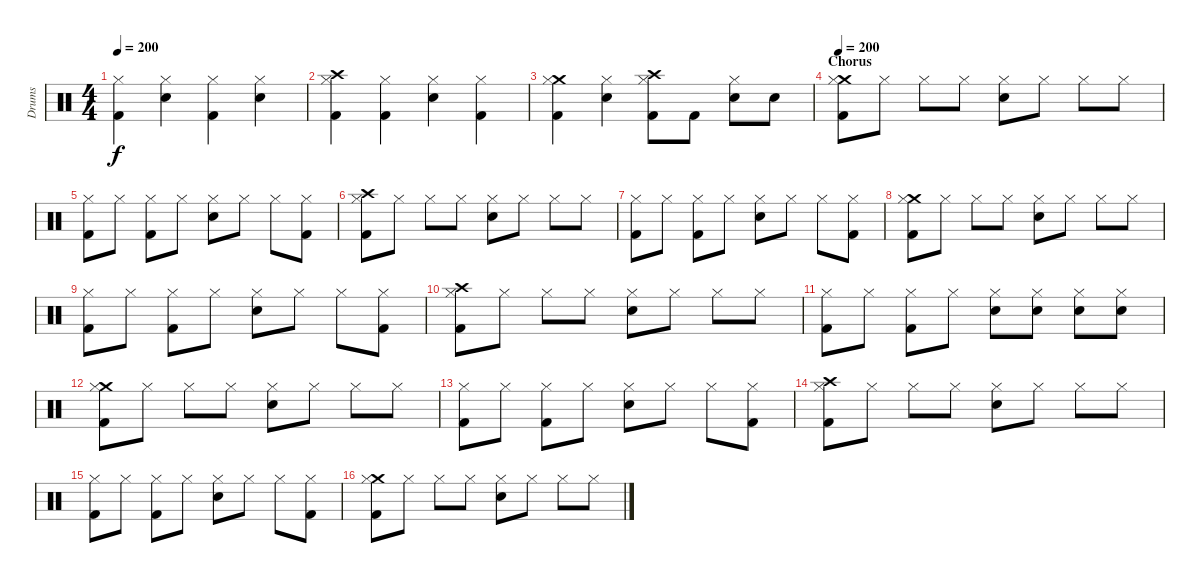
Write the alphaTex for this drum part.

\track ("Drums" "Drums") {instrument percussion}
\staff {score}
\articulation defaults
\ts (4 4)
\tempo 200
\clef neutral
\ks c
("Hi-Hat (closed)" "Kick (hit) 2").4{dy f} ("Hi-Hat (closed)" "Electric Snare (hit)").4 ("Hi-Hat (closed)" "Kick (hit) 2").4 ("Hi-Hat (closed)" "Electric Snare (hit)").4 |
("Crash high (hit)" "Hi-Hat (closed)" "Kick (hit) 2").4 ("Hi-Hat (closed)" "Kick (hit) 2").4 ("Hi-Hat (closed)" "Electric Snare (hit)").4 ("Hi-Hat (closed)" "Kick (hit) 2").4 |
("Crash medium (hit)" "Hi-Hat (closed)" "Kick (hit) 2").4 ("Hi-Hat (closed)" "Electric Snare (hit)").4 ("Crash high (hit)" "Hi-Hat (closed)" "Kick (hit) 2").8 "Kick (hit) 2".8 ("Hi-Hat (closed)" "Electric Snare (hit)").8 "Electric Snare (hit)".8 |
\section ("" "Chorus")
\tempo 200
("Crash medium (hit)" "Hi-Hat (closed)" "Kick (hit) 2").8 "Hi-Hat (closed)".8 "Hi-Hat (closed)".8 "Hi-Hat (closed)".8 ("Hi-Hat (closed)" "Electric Snare (hit)").8 "Hi-Hat (closed)".8 "Hi-Hat (closed)".8 "Hi-Hat (closed)".8 |
("Hi-Hat (closed)" "Kick (hit) 2").8 "Hi-Hat (closed)".8 ("Hi-Hat (closed)" "Kick (hit) 2").8 "Hi-Hat (closed)".8 ("Hi-Hat (closed)" "Electric Snare (hit)").8 "Hi-Hat (closed)".8 "Hi-Hat (closed)".8 ("Hi-Hat (closed)" "Kick (hit) 2").8 |
("Crash high (hit)" "Hi-Hat (closed)" "Kick (hit) 2").8 "Hi-Hat (closed)".8 "Hi-Hat (closed)".8 "Hi-Hat (closed)".8 ("Hi-Hat (closed)" "Electric Snare (hit)").8 "Hi-Hat (closed)".8 "Hi-Hat (closed)".8 "Hi-Hat (closed)".8 |
("Hi-Hat (closed)" "Kick (hit) 2").8 "Hi-Hat (closed)".8 ("Hi-Hat (closed)" "Kick (hit) 2").8 "Hi-Hat (closed)".8 ("Hi-Hat (closed)" "Electric Snare (hit)").8 "Hi-Hat (closed)".8 "Hi-Hat (closed)".8 ("Hi-Hat (closed)" "Kick (hit) 2").8 |
("Crash medium (hit)" "Hi-Hat (closed)" "Kick (hit) 2").8 "Hi-Hat (closed)".8 "Hi-Hat (closed)".8 "Hi-Hat (closed)".8 ("Hi-Hat (closed)" "Electric Snare (hit)").8 "Hi-Hat (closed)".8 "Hi-Hat (closed)".8 "Hi-Hat (closed)".8 |
("Hi-Hat (closed)" "Kick (hit) 2").8 "Hi-Hat (closed)".8 ("Hi-Hat (closed)" "Kick (hit) 2").8 "Hi-Hat (closed)".8 ("Hi-Hat (closed)" "Electric Snare (hit)").8 "Hi-Hat (closed)".8 "Hi-Hat (closed)".8 ("Hi-Hat (closed)" "Kick (hit) 2").8 |
("Crash high (hit)" "Hi-Hat (closed)" "Kick (hit) 2").8 "Hi-Hat (closed)".8 "Hi-Hat (closed)".8 "Hi-Hat (closed)".8 ("Hi-Hat (closed)" "Electric Snare (hit)").8 "Hi-Hat (closed)".8 "Hi-Hat (closed)".8 "Hi-Hat (closed)".8 |
("Hi-Hat (closed)" "Kick (hit) 2").8 "Hi-Hat (closed)".8 ("Hi-Hat (closed)" "Kick (hit) 2").8 "Hi-Hat (closed)".8 ("Hi-Hat (closed)" "Electric Snare (hit)").8 ("Hi-Hat (closed)" "Electric Snare (hit)").8 ("Hi-Hat (closed)" "Electric Snare (hit)").8 ("Hi-Hat (closed)" "Electric Snare (hit)").8 |
("Crash medium (hit)" "Hi-Hat (closed)" "Kick (hit) 2").8 "Hi-Hat (closed)".8 "Hi-Hat (closed)".8 "Hi-Hat (closed)".8 ("Hi-Hat (closed)" "Electric Snare (hit)").8 "Hi-Hat (closed)".8 "Hi-Hat (closed)".8 "Hi-Hat (closed)".8 |
("Hi-Hat (closed)" "Kick (hit) 2").8 "Hi-Hat (closed)".8 ("Hi-Hat (closed)" "Kick (hit) 2").8 "Hi-Hat (closed)".8 ("Hi-Hat (closed)" "Electric Snare (hit)").8 "Hi-Hat (closed)".8 "Hi-Hat (closed)".8 ("Hi-Hat (closed)" "Kick (hit) 2").8 |
("Crash high (hit)" "Hi-Hat (closed)" "Kick (hit) 2").8 "Hi-Hat (closed)".8 "Hi-Hat (closed)".8 "Hi-Hat (closed)".8 ("Hi-Hat (closed)" "Electric Snare (hit)").8 "Hi-Hat (closed)".8 "Hi-Hat (closed)".8 "Hi-Hat (closed)".8 |
("Hi-Hat (closed)" "Kick (hit) 2").8 "Hi-Hat (closed)".8 ("Hi-Hat (closed)" "Kick (hit) 2").8 "Hi-Hat (closed)".8 ("Hi-Hat (closed)" "Electric Snare (hit)").8 "Hi-Hat (closed)".8 "Hi-Hat (closed)".8 ("Hi-Hat (closed)" "Kick (hit) 2").8 |
("Crash medium (hit)" "Hi-Hat (closed)" "Kick (hit) 2").8 "Hi-Hat (closed)".8 "Hi-Hat (closed)".8 "Hi-Hat (closed)".8 ("Hi-Hat (closed)" "Electric Snare (hit)").8 "Hi-Hat (closed)".8 "Hi-Hat (closed)".8 "Hi-Hat (closed)".8
